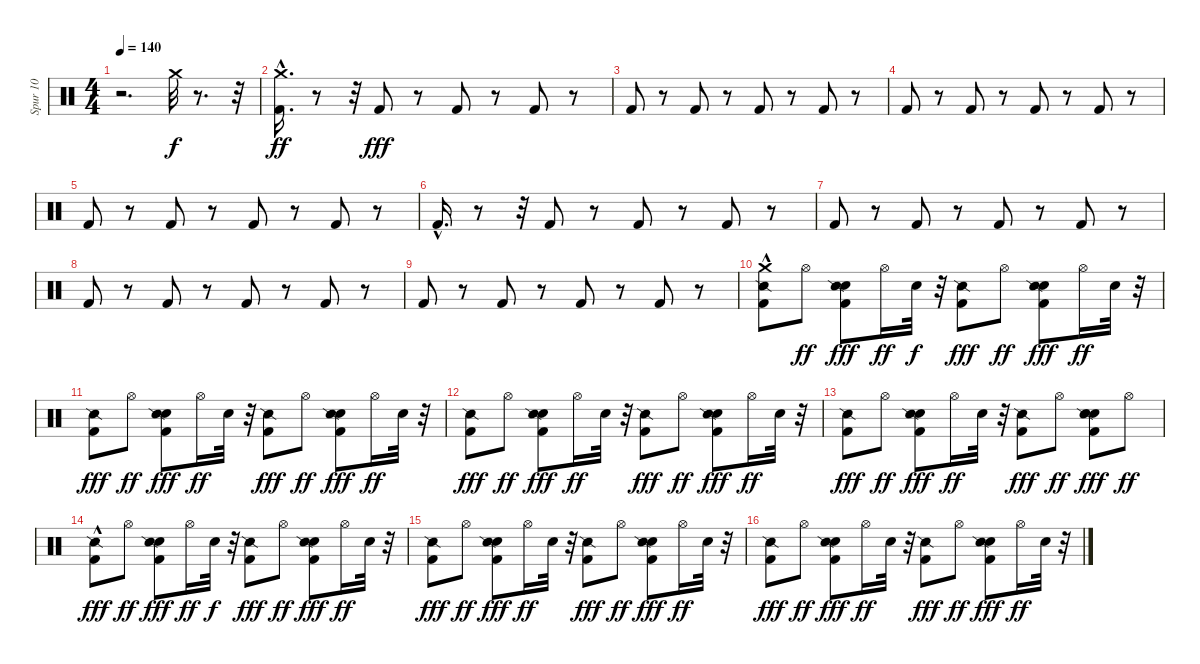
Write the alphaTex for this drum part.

\track ("Spur 10" "Spur 10") {instrument percussion}
\staff {score}
\articulation defaults
\ts (4 4)
\tempo 140
\clef neutral
\ks c
r.2{d dy ff} "Crash medium (hit)".32{dy f} r.8{d} r.32 |
("Kick (hit) 2"{hac} "Crash medium (hit)").16{d dy ff} r.8 r.32 "Kick (hit) 2".8{dy fff} r.8 "Kick (hit) 2".8 r.8 "Kick (hit) 2".8 r.8 |
"Kick (hit) 2".8 r.8 "Kick (hit) 2".8 r.8 "Kick (hit) 2".8 r.8 "Kick (hit) 2".8 r.8 |
"Kick (hit) 2".8 r.8 "Kick (hit) 2".8 r.8 "Kick (hit) 2".8 r.8 "Kick (hit) 2".8 r.8 |
"Kick (hit) 2".8 r.8 "Kick (hit) 2".8 r.8 "Kick (hit) 2".8 r.8 "Kick (hit) 2".8 r.8 |
"Kick (hit) 2"{hac}.16{d} r.8 r.32 "Kick (hit) 2".8 r.8 "Kick (hit) 2".8 r.8 "Kick (hit) 2".8 r.8 |
"Kick (hit) 2".8 r.8 "Kick (hit) 2".8 r.8 "Kick (hit) 2".8 r.8 "Kick (hit) 2".8 r.8 |
"Kick (hit) 2".8 r.8 "Kick (hit) 2".8 r.8 "Kick (hit) 2".8 r.8 "Kick (hit) 2".8 r.8 |
"Kick (hit) 2".8 r.8 "Kick (hit) 2".8 r.8 "Kick (hit) 2".8 r.8 "Kick (hit) 2".8 r.8 |
("Kick (hit) 2"{hac} "Snare (side stick) 2" "Crash medium (hit)").8 "Hi-Hat (open)".8{dy ff} ("Kick (hit) 2" "Hand Clap (hit)" "Snare (side stick) 2").8{dy fff} "Hi-Hat (open)".16{dy ff} "Snare (hit) 2".32{dy f} r.32 ("Kick (hit) 2" "Snare (side stick) 2").8{dy fff} "Hi-Hat (open)".8{dy ff} ("Kick (hit) 2" "Hand Clap (hit)" "Snare (side stick) 2").8{dy fff} "Hi-Hat (open)".16{dy ff} "Snare (hit) 2".32 r.32 |
("Kick (hit) 2" "Snare (side stick) 2").8{dy fff} "Hi-Hat (open)".8{dy ff} ("Kick (hit) 2" "Hand Clap (hit)" "Snare (side stick) 2").8{dy fff} "Hi-Hat (open)".16{dy ff} "Snare (hit) 2".32 r.32 ("Kick (hit) 2" "Snare (side stick) 2").8{dy fff} "Hi-Hat (open)".8{dy ff} ("Kick (hit) 2" "Hand Clap (hit)" "Snare (side stick) 2").8{dy fff} "Hi-Hat (open)".16{dy ff} "Snare (hit) 2".32 r.32 |
("Kick (hit) 2" "Snare (side stick) 2").8{dy fff} "Hi-Hat (open)".8{dy ff} ("Kick (hit) 2" "Hand Clap (hit)" "Snare (side stick) 2").8{dy fff} "Hi-Hat (open)".16{dy ff} "Snare (hit) 2".32 r.32 ("Kick (hit) 2" "Snare (side stick) 2").8{dy fff} "Hi-Hat (open)".8{dy ff} ("Kick (hit) 2" "Hand Clap (hit)" "Snare (side stick) 2").8{dy fff} "Hi-Hat (open)".16{dy ff} "Snare (hit) 2".32 r.32 |
("Kick (hit) 2" "Snare (side stick) 2").8{dy fff} "Hi-Hat (open)".8{dy ff} ("Kick (hit) 2" "Hand Clap (hit)" "Snare (side stick) 2").8{dy fff} "Hi-Hat (open)".16{dy ff} "Snare (hit) 2".32 r.32 ("Kick (hit) 2" "Snare (side stick) 2").8{dy fff} "Hi-Hat (open)".8{dy ff} ("Kick (hit) 2" "Hand Clap (hit)" "Snare (hit) 2" "Snare (side stick) 2").8{dy fff} "Hi-Hat (open)".8{dy ff} |
("Kick (hit) 2"{hac} "Snare (side stick) 2").8{dy fff} "Hi-Hat (open)".8{dy ff} ("Kick (hit) 2" "Hand Clap (hit)" "Snare (side stick) 2").8{dy fff} "Hi-Hat (open)".16{dy ff} "Snare (hit) 2".32{dy f} r.32 ("Kick (hit) 2" "Snare (side stick) 2").8{dy fff} "Hi-Hat (open)".8{dy ff} ("Kick (hit) 2" "Hand Clap (hit)" "Snare (side stick) 2").8{dy fff} "Hi-Hat (open)".16{dy ff} "Snare (hit) 2".32 r.32 |
("Kick (hit) 2" "Snare (side stick) 2").8{dy fff} "Hi-Hat (open)".8{dy ff} ("Kick (hit) 2" "Hand Clap (hit)" "Snare (side stick) 2").8{dy fff} "Hi-Hat (open)".16{dy ff} "Snare (hit) 2".32 r.32 ("Kick (hit) 2" "Snare (side stick) 2").8{dy fff} "Hi-Hat (open)".8{dy ff} ("Kick (hit) 2" "Hand Clap (hit)" "Snare (side stick) 2").8{dy fff} "Hi-Hat (open)".16{dy ff} "Snare (hit) 2".32 r.32 |
("Kick (hit) 2" "Snare (side stick) 2").8{dy fff} "Hi-Hat (open)".8{dy ff} ("Kick (hit) 2" "Hand Clap (hit)" "Snare (side stick) 2").8{dy fff} "Hi-Hat (open)".16{dy ff} "Snare (hit) 2".32 r.32 ("Kick (hit) 2" "Snare (side stick) 2").8{dy fff} "Hi-Hat (open)".8{dy ff} ("Kick (hit) 2" "Hand Clap (hit)" "Snare (side stick) 2").8{dy fff} "Hi-Hat (open)".16{dy ff} "Snare (hit) 2".32 r.32
